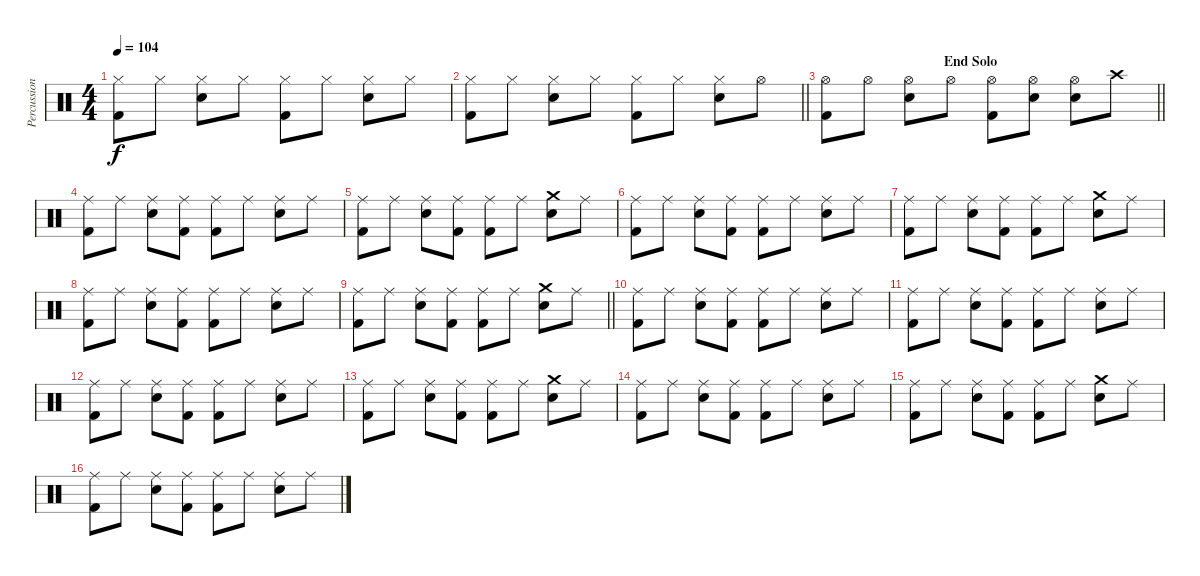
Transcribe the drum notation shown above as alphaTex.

\track ("Percussion" "Percussion") {instrument percussion}
\staff {score}
\articulation defaults
\ts (4 4)
\tempo 104
\clef neutral
\ks c
("Kick (hit) 2" "Hi-Hat (closed)").8{dy f} "Hi-Hat (closed)".8 ("Hi-Hat (closed)" "Electric Snare (hit)").8 "Hi-Hat (closed)".8 ("Kick (hit) 2" "Hi-Hat (closed)").8 "Hi-Hat (closed)".8 ("Hi-Hat (closed)" "Electric Snare (hit)").8 "Hi-Hat (closed)".8 |
\barLineRight lightlight
("Kick (hit) 2" "Hi-Hat (closed)").8 "Hi-Hat (closed)".8 ("Hi-Hat (closed)" "Electric Snare (hit)").8 "Hi-Hat (closed)".8 ("Kick (hit) 2" "Hi-Hat (closed)").8 "Hi-Hat (closed)".8 ("Hi-Hat (closed)" "Electric Snare (hit)").8 "Hi-Hat (open)".8 |
\section ("" "                                   End Solo")
\barLineRight lightlight
("Kick (hit) 2" "Hi-Hat (open)").8 "Hi-Hat (open)".8 ("Hi-Hat (open)" "Electric Snare (hit)").8 "Hi-Hat (open)".8 ("Kick (hit) 2" "Hi-Hat (open)").8 ("Hi-Hat (open)" "Electric Snare (hit)").8 ("Hi-Hat (open)" "Electric Snare (hit)").8 "Crash high (hit)".8 |
("Kick (hit) 2" "Ride (middle)").8 "Ride (middle)".8 ("Ride (middle)" "Electric Snare (hit)").8 ("Kick (hit) 2" "Ride (middle)").8 ("Kick (hit) 2" "Ride (middle)").8 "Ride (middle)".8 ("Ride (middle)" "Electric Snare (hit)").8 "Ride (middle)".8 |
("Kick (hit) 2" "Ride (middle)").8 "Ride (middle)".8 ("Ride (middle)" "Electric Snare (hit)").8 ("Kick (hit) 2" "Ride (middle)").8 ("Kick (hit) 2" "Ride (middle)").8 "Ride (middle)".8 ("Crash medium (hit)" "Electric Snare (hit)").8 "Ride (middle)".8 |
("Kick (hit) 2" "Ride (middle)").8 "Ride (middle)".8 ("Ride (middle)" "Electric Snare (hit)").8 ("Kick (hit) 2" "Ride (middle)").8 ("Kick (hit) 2" "Ride (middle)").8 "Ride (middle)".8 ("Ride (middle)" "Electric Snare (hit)").8 "Ride (middle)".8 |
("Kick (hit) 2" "Ride (middle)").8 "Ride (middle)".8 ("Ride (middle)" "Electric Snare (hit)").8 ("Kick (hit) 2" "Ride (middle)").8 ("Kick (hit) 2" "Ride (middle)").8 "Ride (middle)".8 ("Crash medium (hit)" "Electric Snare (hit)").8 "Ride (middle)".8 |
("Kick (hit) 2" "Ride (middle)").8 "Ride (middle)".8 ("Ride (middle)" "Electric Snare (hit)").8 ("Kick (hit) 2" "Ride (middle)").8 ("Kick (hit) 2" "Ride (middle)").8 "Ride (middle)".8 ("Ride (middle)" "Electric Snare (hit)").8 "Ride (middle)".8 |
\barLineRight lightlight
("Kick (hit) 2" "Ride (middle)").8 "Ride (middle)".8 ("Ride (middle)" "Electric Snare (hit)").8 ("Kick (hit) 2" "Ride (middle)").8 ("Kick (hit) 2" "Ride (middle)").8 "Ride (middle)".8 ("Crash medium (hit)" "Electric Snare (hit)").8 "Ride (middle)".8 |
("Kick (hit) 2" "Ride (middle)").8 "Ride (middle)".8 ("Ride (middle)" "Electric Snare (hit)").8 ("Kick (hit) 2" "Ride (middle)").8 ("Kick (hit) 2" "Ride (middle)").8 "Ride (middle)".8 ("Ride (middle)" "Electric Snare (hit)").8 "Ride (middle)".8 |
("Kick (hit) 2" "Ride (middle)").8 "Ride (middle)".8 ("Ride (middle)" "Electric Snare (hit)").8 ("Kick (hit) 2" "Ride (middle)").8 ("Kick (hit) 2" "Ride (middle)").8 "Ride (middle)".8 ("Ride (middle)" "Electric Snare (hit)").8 "Ride (middle)".8 |
("Kick (hit) 2" "Ride (middle)").8 "Ride (middle)".8 ("Ride (middle)" "Electric Snare (hit)").8 ("Kick (hit) 2" "Ride (middle)").8 ("Kick (hit) 2" "Ride (middle)").8 "Ride (middle)".8 ("Ride (middle)" "Electric Snare (hit)").8 "Ride (middle)".8 |
("Kick (hit) 2" "Ride (middle)").8 "Ride (middle)".8 ("Ride (middle)" "Electric Snare (hit)").8 ("Kick (hit) 2" "Ride (middle)").8 ("Kick (hit) 2" "Ride (middle)").8 "Ride (middle)".8 ("Crash medium (hit)" "Electric Snare (hit)").8 "Ride (middle)".8 |
("Kick (hit) 2" "Ride (middle)").8 "Ride (middle)".8 ("Ride (middle)" "Electric Snare (hit)").8 ("Kick (hit) 2" "Ride (middle)").8 ("Kick (hit) 2" "Ride (middle)").8 "Ride (middle)".8 ("Ride (middle)" "Electric Snare (hit)").8 "Ride (middle)".8 |
("Kick (hit) 2" "Ride (middle)").8 "Ride (middle)".8 ("Ride (middle)" "Electric Snare (hit)").8 ("Kick (hit) 2" "Ride (middle)").8 ("Kick (hit) 2" "Ride (middle)").8 "Ride (middle)".8 ("Crash medium (hit)" "Electric Snare (hit)").8 "Ride (middle)".8 |
("Kick (hit) 2" "Ride (middle)").8 "Ride (middle)".8 ("Ride (middle)" "Electric Snare (hit)").8 ("Kick (hit) 2" "Ride (middle)").8 ("Kick (hit) 2" "Ride (middle)").8 "Ride (middle)".8 ("Ride (middle)" "Electric Snare (hit)").8 "Ride (middle)".8
